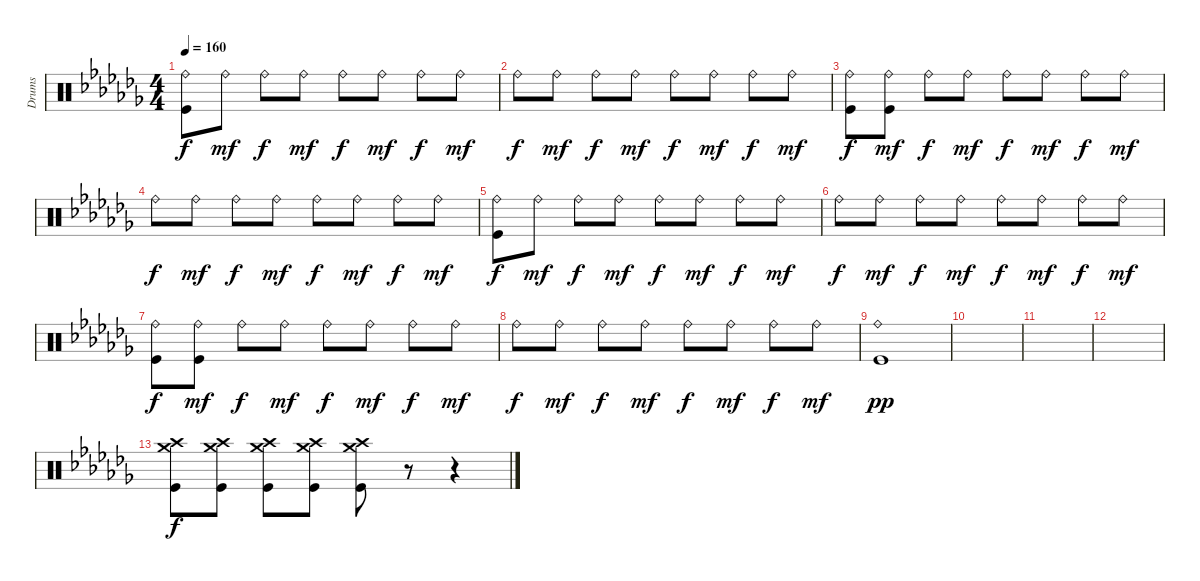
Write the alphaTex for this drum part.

\track ("Drums" "Drums") {instrument percussion}
\staff {score}
\articulation defaults
\ts (4 4)
\tempo 160
\clef neutral
\ks cb
("Ride (bell)" "Kick (hit)").8{dy f} "Ride (bell)".8{dy mf} "Ride (bell)".8{dy f} "Ride (bell)".8{dy mf} "Ride (bell)".8{dy f} "Ride (bell)".8{dy mf} "Ride (bell)".8{dy f} "Ride (bell)".8{dy mf} |
"Ride (bell)".8{dy f} "Ride (bell)".8{dy mf} "Ride (bell)".8{dy f} "Ride (bell)".8{dy mf} "Ride (bell)".8{dy f} "Ride (bell)".8{dy mf} "Ride (bell)".8{dy f} "Ride (bell)".8{dy mf} |
("Ride (bell)" "Kick (hit)").8{dy f} ("Ride (bell)" "Kick (hit)").8{dy mf} "Ride (bell)".8{dy f} "Ride (bell)".8{dy mf} "Ride (bell)".8{dy f} "Ride (bell)".8{dy mf} "Ride (bell)".8{dy f} "Ride (bell)".8{dy mf} |
"Ride (bell)".8{dy f} "Ride (bell)".8{dy mf} "Ride (bell)".8{dy f} "Ride (bell)".8{dy mf} "Ride (bell)".8{dy f} "Ride (bell)".8{dy mf} "Ride (bell)".8{dy f} "Ride (bell)".8{dy mf} |
("Ride (bell)" "Kick (hit)").8{dy f} "Ride (bell)".8{dy mf} "Ride (bell)".8{dy f} "Ride (bell)".8{dy mf} "Ride (bell)".8{dy f} "Ride (bell)".8{dy mf} "Ride (bell)".8{dy f} "Ride (bell)".8{dy mf} |
"Ride (bell)".8{dy f} "Ride (bell)".8{dy mf} "Ride (bell)".8{dy f} "Ride (bell)".8{dy mf} "Ride (bell)".8{dy f} "Ride (bell)".8{dy mf} "Ride (bell)".8{dy f} "Ride (bell)".8{dy mf} |
("Ride (bell)" "Kick (hit)").8{dy f} ("Ride (bell)" "Kick (hit)").8{dy mf} "Ride (bell)".8{dy f} "Ride (bell)".8{dy mf} "Ride (bell)".8{dy f} "Ride (bell)".8{dy mf} "Ride (bell)".8{dy f} "Ride (bell)".8{dy mf} |
"Ride (bell)".8{dy f} "Ride (bell)".8{dy mf} "Ride (bell)".8{dy f} "Ride (bell)".8{dy mf} "Ride (bell)".8{dy f} "Ride (bell)".8{dy mf} "Ride (bell)".8{dy f} "Ride (bell)".8{dy mf} |
("Ride (bell)" "Kick (hit)").1{dy pp} |
|
|
|
("Crash medium (hit)" "Crash high (hit)" "Kick (hit)").8{dy f} ("Crash medium (hit)" "Crash high (hit)" "Kick (hit)").8 ("Crash medium (hit)" "Crash high (hit)" "Kick (hit)").8 ("Crash medium (hit)" "Crash high (hit)" "Kick (hit)").8 ("Crash medium (hit)" "Crash high (hit)" "Kick (hit)").8 r.8 r.4
